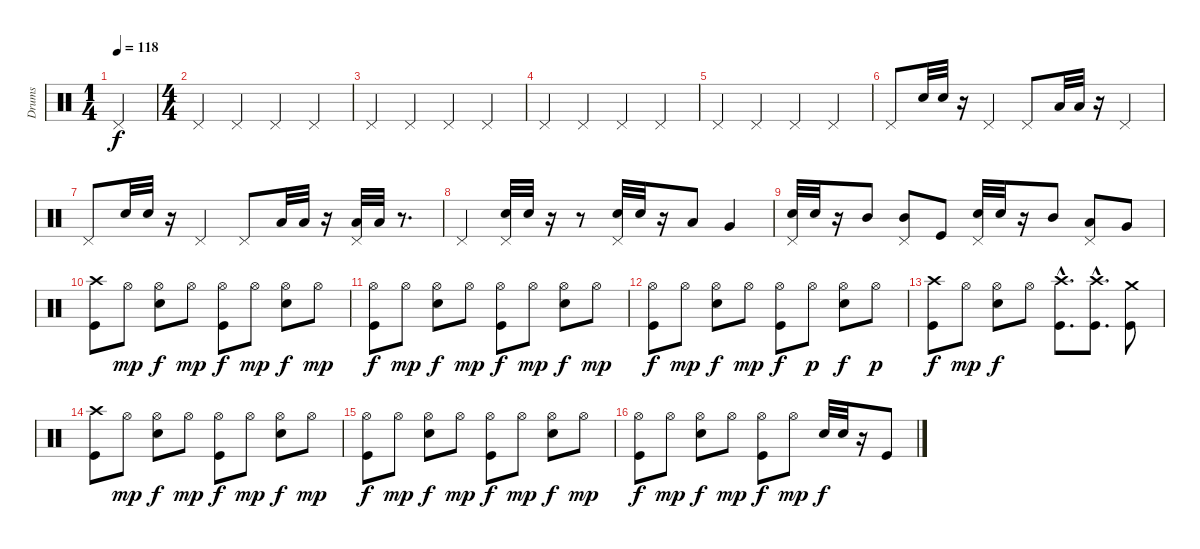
\track ("Drums" "Drums") {instrument percussion}
\staff {score}
\articulation defaults
\ts (1 4)
\tempo 118
\clef neutral
\ks c "Pedal Hi-Hat (hit)".4{dy f}
|
\ts (4 4)
"Pedal Hi-Hat (hit)".4 "Pedal Hi-Hat (hit)".4 "Pedal Hi-Hat (hit)".4 "Pedal Hi-Hat (hit)".4 |
"Pedal Hi-Hat (hit)".4 "Pedal Hi-Hat (hit)".4 "Pedal Hi-Hat (hit)".4 "Pedal Hi-Hat (hit)".4 |
"Pedal Hi-Hat (hit)".4 "Pedal Hi-Hat (hit)".4 "Pedal Hi-Hat (hit)".4 "Pedal Hi-Hat (hit)".4 |
"Pedal Hi-Hat (hit)".4 "Pedal Hi-Hat (hit)".4 "Pedal Hi-Hat (hit)".4 "Pedal Hi-Hat (hit)".4 |
"Pedal Hi-Hat (hit)".8 "Snare (hit) 2".32 "Snare (hit) 2".32 r.16 "Pedal Hi-Hat (hit)".4 "Pedal Hi-Hat (hit)".8 "Low Tom (hit)".32 "Low Tom (hit)".32 r.16 "Pedal Hi-Hat (hit)".4 |
"Pedal Hi-Hat (hit)".8 "Snare (hit) 2".32 "Snare (hit) 2".32 r.16 "Pedal Hi-Hat (hit)".4 "Pedal Hi-Hat (hit)".8 "Low Tom (hit)".32 "Low Tom (hit)".32 r.16 ("Pedal Hi-Hat (hit)" "Low Tom (hit)").32 "Low Tom (hit)".32 r.8{d} |
"Pedal Hi-Hat (hit)".4 ("Pedal Hi-Hat (hit)" "Snare (hit) 2").32 "Snare (hit) 2".32 r.16 r.8 ("Pedal Hi-Hat (hit)" "Snare (hit) 2").32 "Snare (hit) 2".32 r.16 "Low Tom (hit)".8 "Very Low Tom (hit)".4 |
("Pedal Hi-Hat (hit)" "Snare (hit) 2").32 "Snare (hit) 2".32 r.16 "Mid Tom (hit)".8 ("Pedal Hi-Hat (hit)" "Mid Tom (hit)").8 "Kick (hit)".8 ("Pedal Hi-Hat (hit)" "Snare (hit) 2").32 "Snare (hit) 2".32 r.16 "Mid Tom (hit)".8 ("Pedal Hi-Hat (hit)" "Low Tom (hit)").8 "Very Low Tom (hit)".8 |
("Crash high (hit)" "Kick (hit)").8 "Hi-Hat (open)".8{dy mp} ("Hi-Hat (open)" "Snare (hit) 2").8{dy f} "Hi-Hat (open)".8{dy mp} ("Hi-Hat (open)" "Kick (hit)").8{dy f} "Hi-Hat (open)".8{dy mp} ("Hi-Hat (open)" "Snare (hit) 2").8{dy f} "Hi-Hat (open)".8{dy mp} |
("Hi-Hat (open)" "Kick (hit)").8{dy f} "Hi-Hat (open)".8{dy mp} ("Hi-Hat (open)" "Snare (hit) 2").8{dy f} "Hi-Hat (open)".8{dy mp} ("Hi-Hat (open)" "Kick (hit)").8{dy f} "Hi-Hat (open)".8{dy mp} ("Hi-Hat (open)" "Snare (hit) 2").8{dy f} "Hi-Hat (open)".8{dy mp} |
("Hi-Hat (open)" "Kick (hit)").8{dy f} "Hi-Hat (open)".8{dy mp} ("Hi-Hat (open)" "Snare (hit) 2").8{dy f} "Hi-Hat (open)".8{dy mp} ("Hi-Hat (open)" "Kick (hit)").8{dy f} "Hi-Hat (open)".8{dy p} ("Hi-Hat (open)" "Snare (hit) 2").8{dy f} "Hi-Hat (open)".8{dy p} |
("Crash high (hit)" "Kick (hit)").8{dy f} "Hi-Hat (open)".8{dy mp} ("Hi-Hat (open)" "Snare (hit) 2").8{dy f} "Hi-Hat (open)".8 ("Crash high (hit)"{hac} "Kick (hit)"{hac}).8{d} ("Crash high (hit)"{hac} "Kick (hit)"{hac}).8{d} ("Crash medium (hit)" "Kick (hit)").8 |
("Crash high (hit)" "Kick (hit)").8 "Hi-Hat (open)".8{dy mp} ("Hi-Hat (open)" "Snare (hit) 2").8{dy f} "Hi-Hat (open)".8{dy mp} ("Hi-Hat (open)" "Kick (hit)").8{dy f} "Hi-Hat (open)".8{dy mp} ("Hi-Hat (open)" "Snare (hit) 2").8{dy f} "Hi-Hat (open)".8{dy mp} |
("Hi-Hat (open)" "Kick (hit)").8{dy f} "Hi-Hat (open)".8{dy mp} ("Hi-Hat (open)" "Snare (hit) 2").8{dy f} "Hi-Hat (open)".8{dy mp} ("Hi-Hat (open)" "Kick (hit)").8{dy f} "Hi-Hat (open)".8{dy mp} ("Hi-Hat (open)" "Snare (hit) 2").8{dy f} "Hi-Hat (open)".8{dy mp} |
("Hi-Hat (open)" "Kick (hit)").8{dy f} "Hi-Hat (open)".8{dy mp} ("Hi-Hat (open)" "Snare (hit) 2").8{dy f} "Hi-Hat (open)".8{dy mp} ("Hi-Hat (open)" "Kick (hit)").8{dy f} "Hi-Hat (open)".8{dy mp} "Snare (hit) 2".32{dy f} "Snare (hit) 2".32 r.16 "Kick (hit)".8
